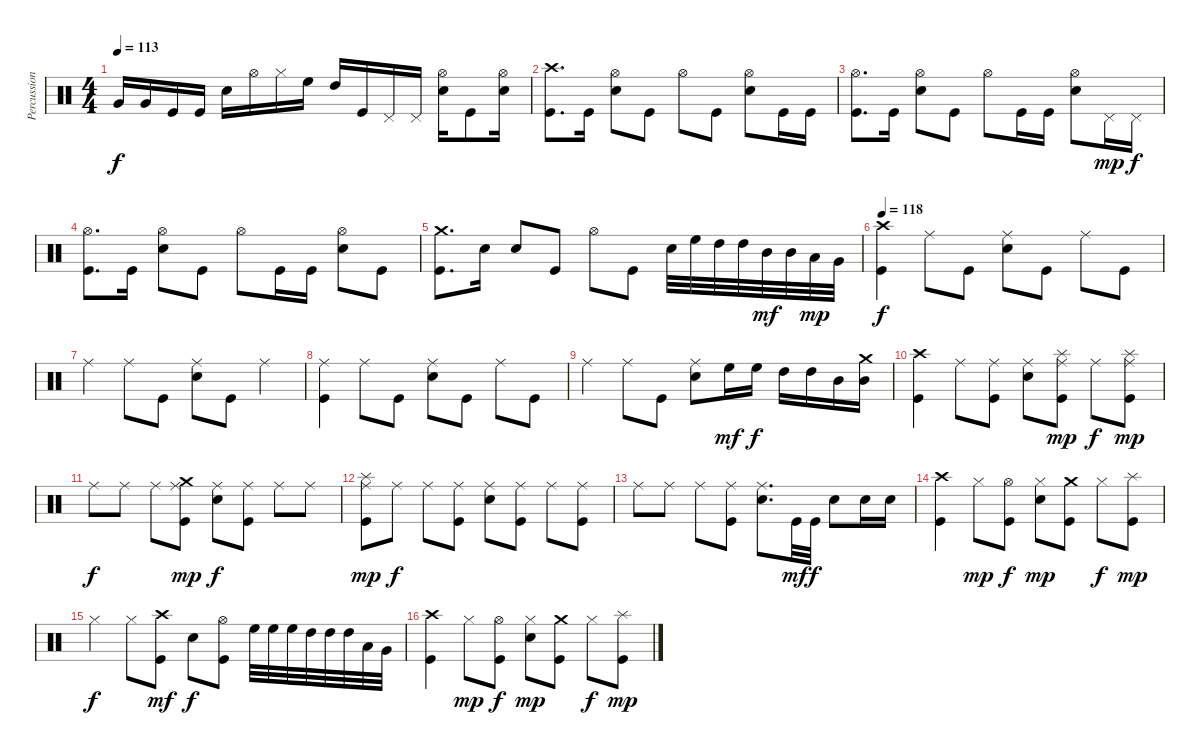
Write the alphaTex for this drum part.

\track ("Percussioni" "Percussion") {instrument percussion}
\staff {score}
\articulation defaults
\ts (4 4)
\tempo 113
\clef neutral
\ks c "Very Low Tom (hit)".16{dy f} "Very Low Tom (hit)".16 "Kick (hit)".16 "Kick (hit)".16 "Snare (hit) 2".16 "Hi-Hat (open)".16 "Hi-Hat (closed)".16 "High Floor Tom (hit)".16 "High Tom (hit)".16 "Kick (hit)".16 "Pedal Hi-Hat (hit)".16 "Pedal Hi-Hat (hit)".16
("Hi-Hat (open)" "Snare (hit) 2").16 "Kick (hit)".8 ("Hi-Hat (open)" "Snare (hit) 2").16 |
("Crash high (hit)" "Kick (hit)").8{d} "Kick (hit)".16 ("Hi-Hat (open)" "Snare (hit) 2").8 "Kick (hit)".8 "Hi-Hat (open)".8 "Kick (hit)".8 ("Hi-Hat (open)" "Snare (hit) 2").8 "Kick (hit)".16 "Kick (hit)".16 |
("Hi-Hat (open)" "Kick (hit)").8{d} "Kick (hit)".16 ("Hi-Hat (open)" "Snare (hit) 2").8 "Kick (hit)".8 "Hi-Hat (open)".8 "Kick (hit)".16 "Kick (hit)".16 ("Hi-Hat (open)" "Snare (hit) 2").8 "Pedal Hi-Hat (hit)".16{dy mp} "Pedal Hi-Hat (hit)".16{dy f} |
("Hi-Hat (open)" "Kick (hit)").8{d} "Kick (hit)".16 ("Hi-Hat (open)" "Snare (hit) 2").8 "Kick (hit)".8 "Hi-Hat (open)".8 "Kick (hit)".16 "Kick (hit)".16 ("Hi-Hat (open)" "Snare (hit) 2").8 "Kick (hit)".8 |
("Crash medium (hit)" "Kick (hit)").8{d} "Snare (hit) 2".16 "Snare (hit) 2".8 "Kick (hit)".8 "Hi-Hat (open)".8 "Kick (hit)".8 "Snare (hit) 2".32 "High Floor Tom (hit)".32 "High Tom (hit)".32 "High Tom (hit)".32 "Mid Tom (hit)".32{dy mf} "Mid Tom (hit)".32 "Low Tom (hit)".32{dy mp} "Very Low Tom (hit)".32 |
\tempo 118
("Crash high (hit)" "Kick (hit)").4{dy f} "Ride (middle)".8 "Kick (hit)".8 ("Ride (middle)" "Snare (hit) 2").8 "Kick (hit)".8 "Ride (middle)".8 "Kick (hit)".8 |
"Ride (middle)".4 "Ride (middle)".8 "Kick (hit)".8 ("Ride (middle)" "Snare (hit) 2").8 "Kick (hit)".8 "Ride (middle)".4 |
("Ride (middle)" "Kick (hit)").4 "Ride (middle)".8 "Kick (hit)".8 ("Ride (middle)" "Snare (hit) 2").8 "Kick (hit)".8 "Ride (middle)".8 "Kick (hit)".8 |
"Ride (middle)".4 "Ride (middle)".8 "Kick (hit)".8 ("Ride (middle)" "Snare (hit) 2").8 "High Floor Tom (hit)".16{dy mf} "High Floor Tom (hit)".16{dy f} "High Tom (hit)".16 "High Tom (hit)".16 "Mid Tom (hit)".16 ("Crash medium (hit)" "Mid Tom (hit)").16 |
("Crash high (hit)" "Kick (hit)").4 "Ride (middle)".8 ("Ride (middle)" "Kick (hit)").8 ("Ride (middle)" "Snare (hit) 2").8 ("Splash (hit)" "Ride (middle)" "Kick (hit)").8{dy mp} "Ride (middle)".8{dy f} ("Splash (hit)" "Ride (middle)" "Kick (hit)").8{dy mp} |
"Ride (middle)".8{dy f} "Ride (middle)".8 "Ride (middle)".8 ("Crash medium (hit)" "Ride (middle)" "Kick (hit)").8{dy mp} ("Ride (middle)" "Snare (hit) 2").8{dy f} ("Ride (middle)" "Kick (hit)").8 "Ride (middle)".8 "Ride (middle)".8 |
("Splash (hit)" "Ride (middle)" "Kick (hit)").8{dy mp} "Ride (middle)".8{dy f} "Ride (middle)".8 ("Ride (middle)" "Kick (hit)").8 ("Ride (middle)" "Snare (hit) 2").8 ("Ride (middle)" "Kick (hit)").8 "Ride (middle)".8 ("Ride (middle)" "Kick (hit)").8 |
"Ride (middle)".8 "Ride (middle)".8 "Ride (middle)".8 ("Ride (middle)" "Kick (hit)").8 ("Ride (middle)" "Snare (hit) 2").8{d} "Kick (hit)".32{dy mf} "Kick (hit)".32{dy f} "Snare (hit) 2".8 "Snare (hit) 2".16 "Snare (hit) 2".16 |
("Crash high (hit)" "Kick (hit)").4 "Hi-Hat (closed)".8{dy mp} ("Hi-Hat (open)" "Kick (hit)").8{dy f} ("Hi-Hat (closed)" "Snare (hit) 2").8{dy mp} ("Crash medium (hit)" "Kick (hit)").8 "Hi-Hat (closed)".8{dy f} ("Splash (hit)" "Kick (hit)").8{dy mp} |
"Hi-Hat (closed)".4{dy f} "Hi-Hat (closed)".8 ("Crash high (hit)" "Kick (hit)").8{dy mf} "Snare (hit) 2".8{dy f} ("Hi-Hat (open)" "Kick (hit)").8 "High Floor Tom (hit)".32 "High Floor Tom (hit)".32 "High Floor Tom (hit)".32 "High Tom (hit)".32 "High Tom (hit)".32 "High Tom (hit)".32 "Low Tom (hit)".32 "Very Low Tom (hit)".32 |
("Crash high (hit)" "Kick (hit)").4 "Hi-Hat (closed)".8{dy mp} ("Hi-Hat (open)" "Kick (hit)").8{dy f} ("Hi-Hat (closed)" "Snare (hit) 2").8{dy mp} ("Crash medium (hit)" "Kick (hit)").8 "Hi-Hat (closed)".8{dy f} ("Splash (hit)" "Kick (hit)").8{dy mp}
